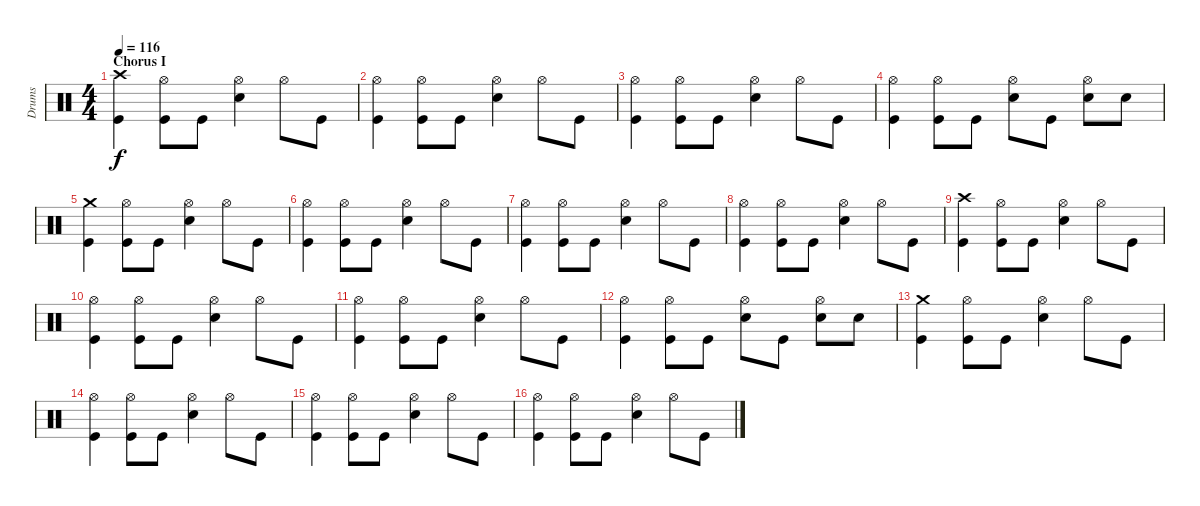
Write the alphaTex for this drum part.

\track ("Drums" "Drums") {instrument percussion}
\staff {score}
\articulation defaults
\ts (4 4)
\section ("" "Chorus I")
\tempo 116
\clef neutral
\ks c
("Crash high (hit)" "Kick (hit)").4{dy f} ("Hi-Hat (open)" "Kick (hit)").8 "Kick (hit)".8 ("Hi-Hat (open)" "Electric Snare (hit)").4 "Hi-Hat (open)".8 "Kick (hit)".8 |
("Hi-Hat (open)" "Kick (hit)").4 ("Hi-Hat (open)" "Kick (hit)").8 "Kick (hit)".8 ("Hi-Hat (open)" "Electric Snare (hit)").4 "Hi-Hat (open)".8 "Kick (hit)".8 |
("Hi-Hat (open)" "Kick (hit)").4 ("Hi-Hat (open)" "Kick (hit)").8 "Kick (hit)".8 ("Hi-Hat (open)" "Electric Snare (hit)").4 "Hi-Hat (open)".8 "Kick (hit)".8 |
("Hi-Hat (open)" "Kick (hit)").4 ("Hi-Hat (open)" "Kick (hit)").8 "Kick (hit)".8 ("Hi-Hat (open)" "Electric Snare (hit)").8 "Kick (hit)".8 ("Hi-Hat (open)" "Electric Snare (hit)").8 "Electric Snare (hit)".8 |
("Crash medium (hit)" "Kick (hit)").4 ("Hi-Hat (open)" "Kick (hit)").8 "Kick (hit)".8 ("Hi-Hat (open)" "Electric Snare (hit)").4 "Hi-Hat (open)".8 "Kick (hit)".8 |
("Hi-Hat (open)" "Kick (hit)").4 ("Hi-Hat (open)" "Kick (hit)").8 "Kick (hit)".8 ("Hi-Hat (open)" "Electric Snare (hit)").4 "Hi-Hat (open)".8 "Kick (hit)".8 |
("Hi-Hat (open)" "Kick (hit)").4 ("Hi-Hat (open)" "Kick (hit)").8 "Kick (hit)".8 ("Hi-Hat (open)" "Electric Snare (hit)").4 "Hi-Hat (open)".8 "Kick (hit)".8 |
("Hi-Hat (open)" "Kick (hit)").4 ("Hi-Hat (open)" "Kick (hit)").8 "Kick (hit)".8 ("Hi-Hat (open)" "Electric Snare (hit)").4 "Hi-Hat (open)".8 "Kick (hit)".8 |
("Crash high (hit)" "Kick (hit)").4 ("Hi-Hat (open)" "Kick (hit)").8 "Kick (hit)".8 ("Hi-Hat (open)" "Electric Snare (hit)").4 "Hi-Hat (open)".8 "Kick (hit)".8 |
("Hi-Hat (open)" "Kick (hit)").4 ("Hi-Hat (open)" "Kick (hit)").8 "Kick (hit)".8 ("Hi-Hat (open)" "Electric Snare (hit)").4 "Hi-Hat (open)".8 "Kick (hit)".8 |
("Hi-Hat (open)" "Kick (hit)").4 ("Hi-Hat (open)" "Kick (hit)").8 "Kick (hit)".8 ("Hi-Hat (open)" "Electric Snare (hit)").4 "Hi-Hat (open)".8 "Kick (hit)".8 |
("Hi-Hat (open)" "Kick (hit)").4 ("Hi-Hat (open)" "Kick (hit)").8 "Kick (hit)".8 ("Hi-Hat (open)" "Electric Snare (hit)").8 "Kick (hit)".8 ("Hi-Hat (open)" "Electric Snare (hit)").8 "Electric Snare (hit)".8 |
("Crash medium (hit)" "Kick (hit)").4 ("Hi-Hat (open)" "Kick (hit)").8 "Kick (hit)".8 ("Hi-Hat (open)" "Electric Snare (hit)").4 "Hi-Hat (open)".8 "Kick (hit)".8 |
("Hi-Hat (open)" "Kick (hit)").4 ("Hi-Hat (open)" "Kick (hit)").8 "Kick (hit)".8 ("Hi-Hat (open)" "Electric Snare (hit)").4 "Hi-Hat (open)".8 "Kick (hit)".8 |
("Hi-Hat (open)" "Kick (hit)").4 ("Hi-Hat (open)" "Kick (hit)").8 "Kick (hit)".8 ("Hi-Hat (open)" "Electric Snare (hit)").4 "Hi-Hat (open)".8 "Kick (hit)".8 |
("Hi-Hat (open)" "Kick (hit)").4 ("Hi-Hat (open)" "Kick (hit)").8 "Kick (hit)".8 ("Hi-Hat (open)" "Electric Snare (hit)").4 "Hi-Hat (open)".8 "Kick (hit)".8
